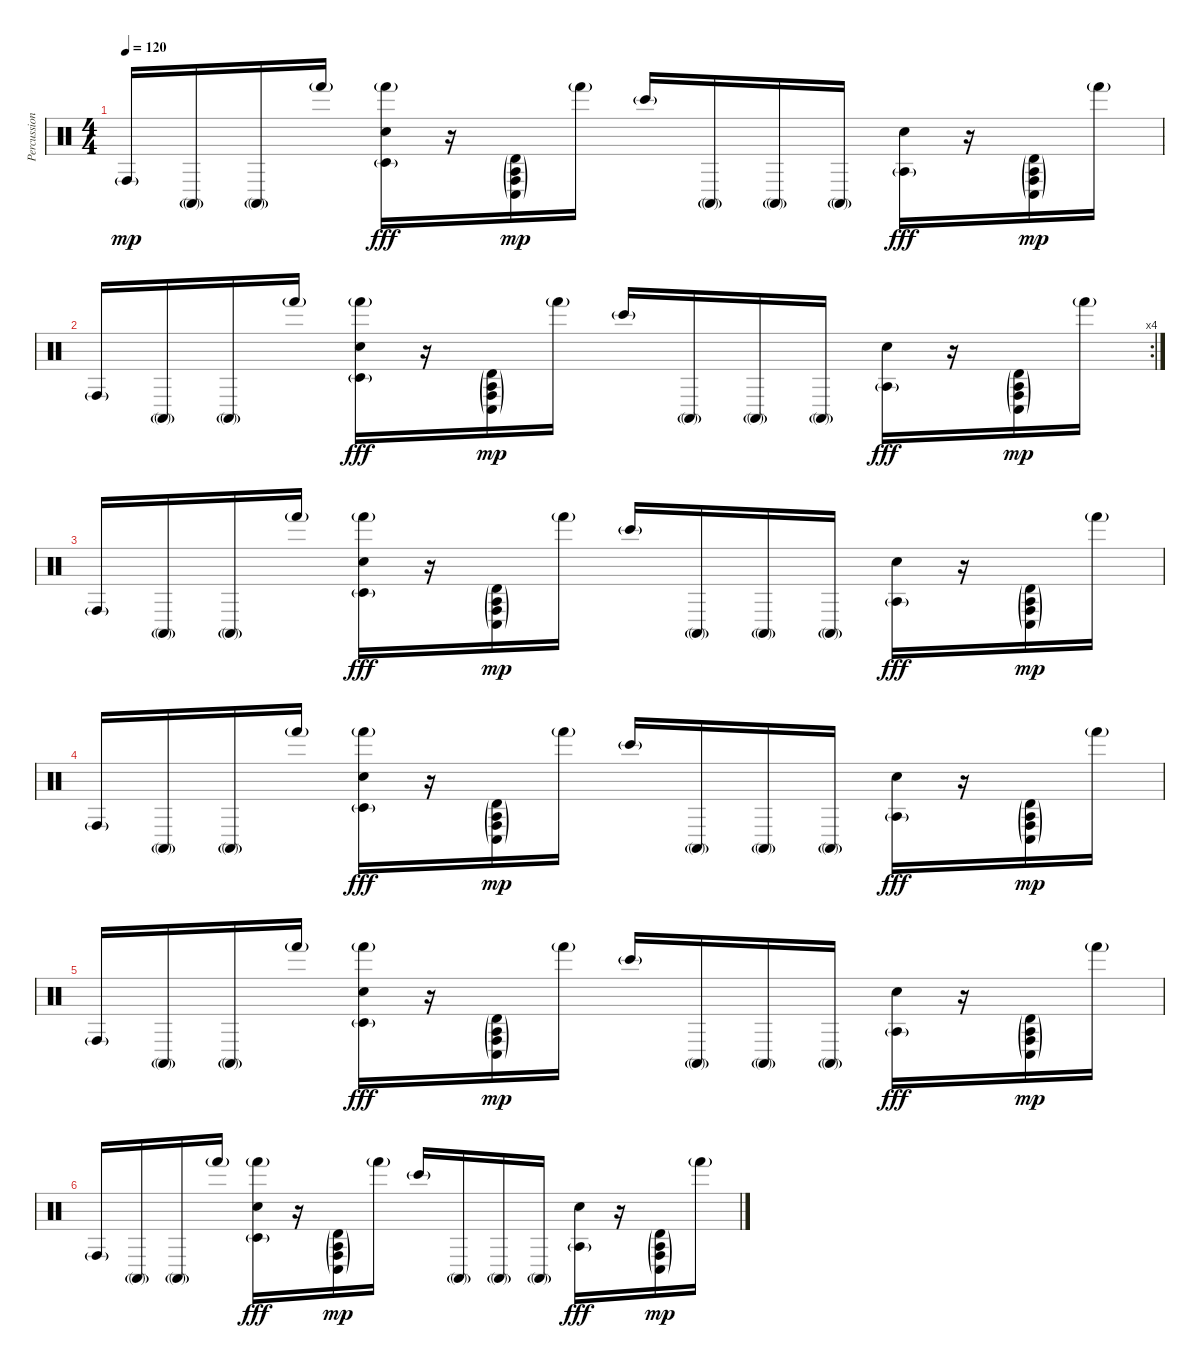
\track ("Percussions" "Percussion") {instrument percussion}
\staff {score}
\articulation defaults
\ts (4 4)
\tempo 120
\clef neutral
\ks c "Conga high (hit)"{g}.16{dy mp} "Conga high (mute)"{g}.16 "Conga high (mute)"{g}.16 "Hand (hit)"{g}.16
("Hand (hit)"{g} "Timbale low (hit)"{g} "Hand Clap (hit)").16{dy fff} r.16 ("Agogo tow (hit)"{g} "Conga high (hit)"{g} "Conga low (hit)"{g} "Timbale high (hit)"{g}).16{dy mp} "Hand (hit)"{g}.16 "Bongo High (hit)"{g}.16 "Conga high (mute)"{g}.16 "Conga high (mute)"{g}.16 "Conga high (mute)"{g}.16 ("Agogo tow (hit)"{g} "Hand Clap (hit)").16{dy fff} r.16 ("Agogo tow (hit)"{g} "Conga high (hit)"{g} "Conga low (hit)"{g} "Timbale high (hit)"{g}).16{dy mp} "Hand (hit)"{g}.16 |
\rc 4 "Conga high (hit)"{g}.16 "Conga high (mute)"{g}.16 "Conga high (mute)"{g}.16 "Hand (hit)"{g}.16
("Hand (hit)"{g} "Timbale low (hit)"{g} "Hand Clap (hit)").16{dy fff} r.16 ("Agogo tow (hit)"{g} "Conga high (hit)"{g} "Conga low (hit)"{g} "Timbale high (hit)"{g}).16{dy mp} "Hand (hit)"{g}.16 "Bongo High (hit)"{g}.16 "Conga high (mute)"{g}.16 "Conga high (mute)"{g}.16 "Conga high (mute)"{g}.16 ("Agogo tow (hit)"{g} "Hand Clap (hit)").16{dy fff} r.16 ("Agogo tow (hit)"{g} "Conga high (hit)"{g} "Conga low (hit)"{g} "Timbale high (hit)"{g}).16{dy mp} "Hand (hit)"{g}.16 |
"Conga high (hit)"{g}.16 "Conga high (mute)"{g}.16 "Conga high (mute)"{g}.16 "Hand (hit)"{g}.16 ("Hand (hit)"{g} "Timbale low (hit)"{g} "Hand Clap (hit)").16{dy fff} r.16 ("Agogo tow (hit)"{g} "Conga high (hit)"{g} "Conga low (hit)"{g} "Timbale high (hit)"{g}).16{dy mp} "Hand (hit)"{g}.16 "Bongo High (hit)"{g}.16 "Conga high (mute)"{g}.16 "Conga high (mute)"{g}.16 "Conga high (mute)"{g}.16 ("Agogo tow (hit)"{g} "Hand Clap (hit)").16{dy fff} r.16 ("Agogo tow (hit)"{g} "Conga high (hit)"{g} "Conga low (hit)"{g} "Timbale high (hit)"{g}).16{dy mp} "Hand (hit)"{g}.16 |
"Conga high (hit)"{g}.16 "Conga high (mute)"{g}.16 "Conga high (mute)"{g}.16 "Hand (hit)"{g}.16 ("Hand (hit)"{g} "Timbale low (hit)"{g} "Hand Clap (hit)").16{dy fff} r.16 ("Agogo tow (hit)"{g} "Conga high (hit)"{g} "Conga low (hit)"{g} "Timbale high (hit)"{g}).16{dy mp} "Hand (hit)"{g}.16 "Bongo High (hit)"{g}.16 "Conga high (mute)"{g}.16 "Conga high (mute)"{g}.16 "Conga high (mute)"{g}.16 ("Agogo tow (hit)"{g} "Hand Clap (hit)").16{dy fff} r.16 ("Agogo tow (hit)"{g} "Conga high (hit)"{g} "Conga low (hit)"{g} "Timbale high (hit)"{g}).16{dy mp} "Hand (hit)"{g}.16 |
"Conga high (hit)"{g}.16 "Conga high (mute)"{g}.16 "Conga high (mute)"{g}.16 "Hand (hit)"{g}.16 ("Hand (hit)"{g} "Timbale low (hit)"{g} "Hand Clap (hit)").16{dy fff} r.16 ("Agogo tow (hit)"{g} "Conga high (hit)"{g} "Conga low (hit)"{g} "Timbale high (hit)"{g}).16{dy mp} "Hand (hit)"{g}.16 "Bongo High (hit)"{g}.16 "Conga high (mute)"{g}.16 "Conga high (mute)"{g}.16 "Conga high (mute)"{g}.16 ("Agogo tow (hit)"{g} "Hand Clap (hit)").16{dy fff} r.16 ("Agogo tow (hit)"{g} "Conga high (hit)"{g} "Conga low (hit)"{g} "Timbale high (hit)"{g}).16{dy mp} "Hand (hit)"{g}.16 |
"Conga high (hit)"{g}.16 "Conga high (mute)"{g}.16 "Conga high (mute)"{g}.16 "Hand (hit)"{g}.16 ("Hand (hit)"{g} "Timbale low (hit)"{g} "Hand Clap (hit)").16{dy fff} r.16 ("Agogo tow (hit)"{g} "Conga high (hit)"{g} "Conga low (hit)"{g} "Timbale high (hit)"{g}).16{dy mp} "Hand (hit)"{g}.16 "Bongo High (hit)"{g}.16 "Conga high (mute)"{g}.16 "Conga high (mute)"{g}.16 "Conga high (mute)"{g}.16 ("Agogo tow (hit)"{g} "Hand Clap (hit)").16{dy fff} r.16 ("Agogo tow (hit)"{g} "Conga high (hit)"{g} "Conga low (hit)"{g} "Timbale high (hit)"{g}).16{dy mp} "Hand (hit)"{g}.16
